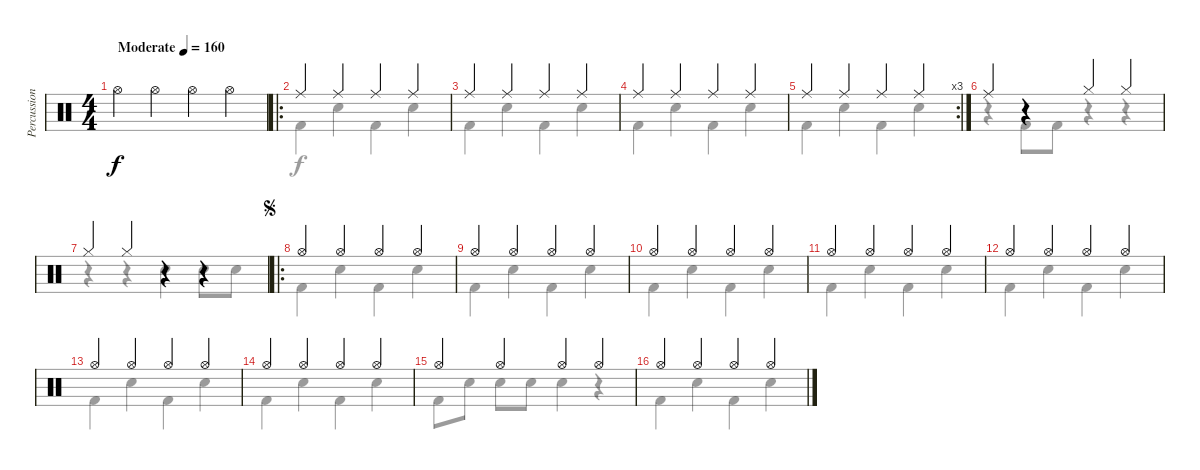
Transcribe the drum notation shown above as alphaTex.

\track ("Percussion" "Percussion") {instrument percussion}
\staff {score}
\articulation defaults
\voice
\ts (4 4)
\tempo (160 "Moderate")
\clef neutral
\ks c "Hi-Hat (open)".4{dy f} "Hi-Hat (open)".4 "Hi-Hat (open)".4 "Hi-Hat (open)".4
|
\ro "Ride (middle)".4 "Ride (middle)".4 "Ride (middle)".4 "Ride (middle)".4
|
"Ride (middle)".4 "Ride (middle)".4 "Ride (middle)".4 "Ride (middle)".4 |
"Ride (middle)".4 "Ride (middle)".4 "Ride (middle)".4 "Ride (middle)".4 |
\rc 3 "Ride (middle)".4 "Ride (middle)".4 "Ride (middle)".4 "Ride (middle)".4
|
"Ride (middle)".4 r.4 "Hi-Hat (closed)".4 "Hi-Hat (closed)".4 |
"Hi-Hat (closed)".4 "Hi-Hat (closed)".4 r.4 r.4 |
\ro
\jump segno "Hi-Hat (open)".4 "Hi-Hat (open)".4 "Hi-Hat (open)".4 "Hi-Hat (open)".4
|
"Hi-Hat (open)".4 "Hi-Hat (open)".4 "Hi-Hat (open)".4 "Hi-Hat (open)".4 |
"Hi-Hat (open)".4 "Hi-Hat (open)".4 "Hi-Hat (open)".4 "Hi-Hat (open)".4 |
"Hi-Hat (open)".4 "Hi-Hat (open)".4 "Hi-Hat (open)".4 "Hi-Hat (open)".4 |
"Hi-Hat (open)".4 "Hi-Hat (open)".4 "Hi-Hat (open)".4 "Hi-Hat (open)".4 |
"Hi-Hat (open)".4 "Hi-Hat (open)".4 "Hi-Hat (open)".4 "Hi-Hat (open)".4 |
"Hi-Hat (open)".4 "Hi-Hat (open)".4 "Hi-Hat (open)".4 "Hi-Hat (open)".4 |
"Hi-Hat (open)".4 "Hi-Hat (open)".4 "Hi-Hat (open)".4 "Hi-Hat (open)".4 |
"Hi-Hat (open)".4 "Hi-Hat (open)".4 "Hi-Hat (open)".4 "Hi-Hat (open)".4
\voice
\clef neutral
\ottava regular
\simile none
\ks c
|
"Kick (hit) 2".4 "Snare (hit) 2".4 "Kick (hit) 2".4 "Snare (hit) 2".4 |
"Kick (hit) 2".4 "Snare (hit) 2".4 "Kick (hit) 2".4 "Snare (hit) 2".4 |
"Kick (hit) 2".4 "Snare (hit) 2".4 "Kick (hit) 2".4 "Snare (hit) 2".4 |
"Kick (hit) 2".4 "Snare (hit) 2".4 "Kick (hit) 2".4 "Snare (hit) 2".4 |
r.4 "Kick (hit) 2".8 "Kick (hit) 2".8 r.4 r.4 |
r.4 r.4 "Snare (hit) 2".4 "Snare (hit) 2".8 "Snare (hit) 2".8 |
"Kick (hit) 2".4 "Snare (hit) 2".4 "Kick (hit) 2".4 "Snare (hit) 2".4 |
"Kick (hit) 2".4 "Snare (hit) 2".4 "Kick (hit) 2".4 "Snare (hit) 2".4 |
"Kick (hit) 2".4 "Snare (hit) 2".4 "Kick (hit) 2".4 "Snare (hit) 2".4 |
"Kick (hit) 2".4 "Snare (hit) 2".4 "Kick (hit) 2".4 "Snare (hit) 2".4 |
"Kick (hit) 2".4 "Snare (hit) 2".4 "Kick (hit) 2".4 "Snare (hit) 2".4 |
"Kick (hit) 2".4 "Snare (hit) 2".4 "Kick (hit) 2".4 "Snare (hit) 2".4 |
"Kick (hit) 2".4 "Snare (hit) 2".4 "Kick (hit) 2".4 "Snare (hit) 2".4 |
"Kick (hit) 2".8 "Snare (hit) 2".8 "Snare (hit) 2".8 "Snare (hit) 2".8 "Snare (hit) 2".4 r.4 |
"Kick (hit) 2".4 "Snare (hit) 2".4 "Kick (hit) 2".4 "Snare (hit) 2".4
